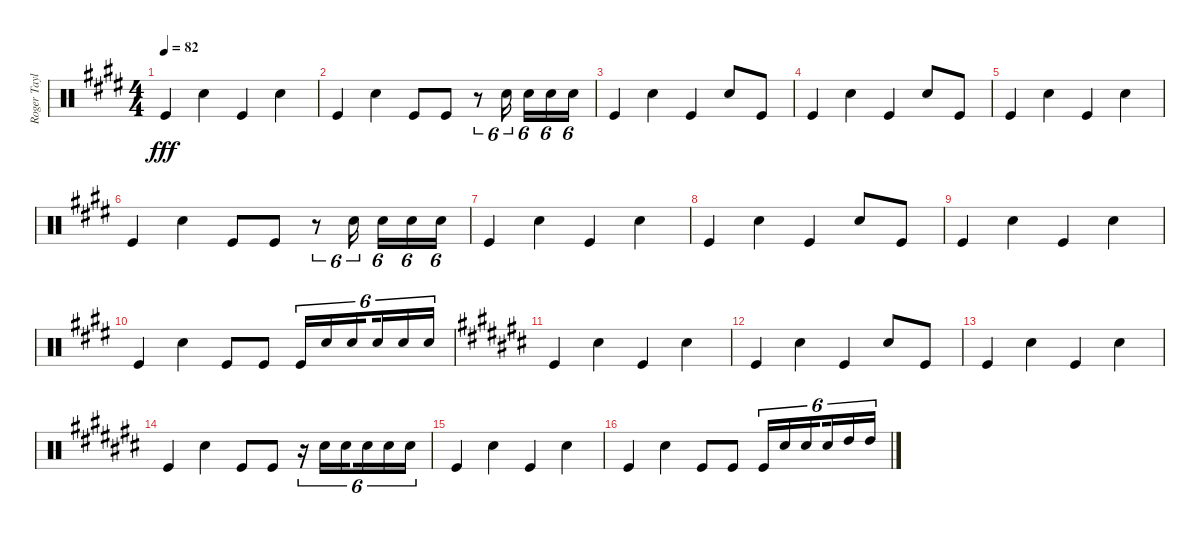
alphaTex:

\track ("Roger Taylor" "Roger Tayl") {instrument percussion}
\staff {score}
\articulation defaults
\ts (4 4)
\tempo 82
\clef neutral
\ks e "Kick (hit)".4{dy fff} "Snare (hit) 2".4 "Kick (hit)".4 "Snare (hit) 2".4
|
"Kick (hit)".4 "Snare (hit) 2".4 "Kick (hit)".8 "Kick (hit)".8 r.8{tu (6 4)} "Snare (hit) 2".16{tu (6 4) beam splitsecondary} "Snare (hit) 2".16{tu (6 4)} "Snare (hit) 2".16{tu (6 4)} "Snare (hit) 2".16{tu (6 4)} |
"Kick (hit)".4 "Snare (hit) 2".4 "Kick (hit)".4 "Snare (hit) 2".8 "Kick (hit)".8 |
"Kick (hit)".4 "Snare (hit) 2".4 "Kick (hit)".4 "Snare (hit) 2".8 "Kick (hit)".8 |
"Kick (hit)".4 "Snare (hit) 2".4 "Kick (hit)".4 "Snare (hit) 2".4 |
"Kick (hit)".4 "Snare (hit) 2".4 "Kick (hit)".8 "Kick (hit)".8 r.8{tu (6 4)} "Snare (hit) 2".16{tu (6 4) beam splitsecondary} "Snare (hit) 2".16{tu (6 4)} "Snare (hit) 2".16{tu (6 4)} "Snare (hit) 2".16{tu (6 4)} |
"Kick (hit)".4 "Snare (hit) 2".4 "Kick (hit)".4 "Snare (hit) 2".4 |
"Kick (hit)".4 "Snare (hit) 2".4 "Kick (hit)".4 "Snare (hit) 2".8 "Kick (hit)".8 |
"Kick (hit)".4 "Snare (hit) 2".4 "Kick (hit)".4 "Snare (hit) 2".4 |
"Kick (hit)".4 "Snare (hit) 2".4 "Kick (hit)".8 "Kick (hit)".8 "Kick (hit)".16{tu (6 4)} "Snare (hit) 2".16{tu (6 4)} "Snare (hit) 2".16{tu (6 4) beam splitsecondary} "Snare (hit) 2".16{tu (6 4)} "Snare (hit) 2".16{tu (6 4)} "Snare (hit) 2".16{tu (6 4)} |
\ks c# "Kick (hit)".4 "Snare (hit) 2".4 "Kick (hit)".4 "Snare (hit) 2".4
|
"Kick (hit)".4 "Snare (hit) 2".4 "Kick (hit)".4 "Snare (hit) 2".8 "Kick (hit)".8 |
"Kick (hit)".4 "Snare (hit) 2".4 "Kick (hit)".4 "Snare (hit) 2".4 |
"Kick (hit)".4 "Snare (hit) 2".4 "Kick (hit)".8 "Kick (hit)".8 r.16{tu (6 4)} "Snare (hit) 2".16{tu (6 4)} "Snare (hit) 2".16{tu (6 4) beam splitsecondary} "Snare (hit) 2".16{tu (6 4)} "Snare (hit) 2".16{tu (6 4)} "Snare (hit) 2".16{tu (6 4)} |
"Kick (hit)".4 "Snare (hit) 2".4 "Kick (hit)".4 "Snare (hit) 2".4 |
"Kick (hit)".4 "Snare (hit) 2".4 "Kick (hit)".8 "Kick (hit)".8 "Kick (hit)".16{tu (6 4)} "Snare (hit) 2".16{tu (6 4)} "Snare (hit) 2".16{tu (6 4) beam splitsecondary} "Snare (hit) 2".16{tu (6 4)} "High Tom (hit)".16{tu (6 4)} "High Tom (hit)".16{tu (6 4)}
